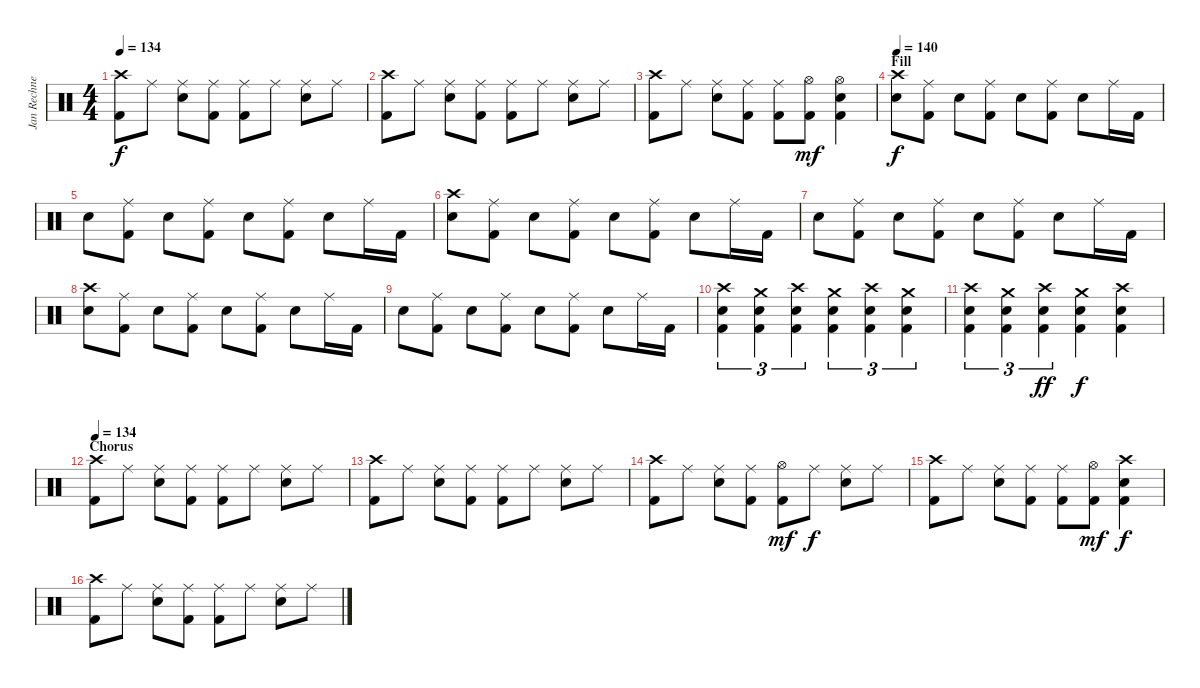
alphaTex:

\track ("Jan Rechnerger" "Jan Rechne") {instrument percussion}
\staff {score}
\articulation defaults
\ts (4 4)
\tempo 134
\clef neutral
\ks c
("Crash high (hit)" "Kick (hit) 2").8{dy f} "Ride (middle)".8 ("Ride (middle)" "Snare (hit) 2").8 ("Ride (middle)" "Kick (hit) 2").8 ("Ride (middle)" "Kick (hit) 2").8 "Ride (middle)".8 ("Ride (middle)" "Snare (hit) 2").8 "Ride (middle)".8 |
("Crash high (hit)" "Kick (hit) 2").8 "Ride (middle)".8 ("Ride (middle)" "Snare (hit) 2").8 ("Ride (middle)" "Kick (hit) 2").8 ("Ride (middle)" "Kick (hit) 2").8 "Ride (middle)".8 ("Ride (middle)" "Snare (hit) 2").8 "Ride (middle)".8 |
("Crash high (hit)" "Kick (hit) 2").8 "Ride (middle)".8 ("Ride (middle)" "Snare (hit) 2").8 ("Ride (middle)" "Kick (hit) 2").8 ("Ride (middle)" "Kick (hit) 2").8 ("Hi-Hat (open)" "Kick (hit) 2").8{dy mf} ("Hi-Hat (open)" "Snare (hit) 2" "Kick (hit) 2").4 |
\section ("" "Fill")
\tempo 140
("Crash high (hit)" "Snare (hit) 2").8{dy f} ("Ride (middle)" "Kick (hit) 2").8 "Snare (hit) 2".8 ("Ride (middle)" "Kick (hit) 2").8 "Snare (hit) 2".8 ("Ride (middle)" "Kick (hit) 2").8 "Snare (hit) 2".8 "Ride (middle)".16 "Kick (hit) 2".16 |
"Snare (hit) 2".8 ("Ride (middle)" "Kick (hit) 2").8 "Snare (hit) 2".8 ("Ride (middle)" "Kick (hit) 2").8 "Snare (hit) 2".8 ("Ride (middle)" "Kick (hit) 2").8 "Snare (hit) 2".8 "Ride (middle)".16 "Kick (hit) 2".16 |
("Crash high (hit)" "Snare (hit) 2").8 ("Ride (middle)" "Kick (hit) 2").8 "Snare (hit) 2".8 ("Ride (middle)" "Kick (hit) 2").8 "Snare (hit) 2".8 ("Ride (middle)" "Kick (hit) 2").8 "Snare (hit) 2".8 "Ride (middle)".16 "Kick (hit) 2".16 |
"Snare (hit) 2".8 ("Ride (middle)" "Kick (hit) 2").8 "Snare (hit) 2".8 ("Ride (middle)" "Kick (hit) 2").8 "Snare (hit) 2".8 ("Ride (middle)" "Kick (hit) 2").8 "Snare (hit) 2".8 "Ride (middle)".16 "Kick (hit) 2".16 |
("Crash high (hit)" "Snare (hit) 2").8 ("Ride (middle)" "Kick (hit) 2").8 "Snare (hit) 2".8 ("Ride (middle)" "Kick (hit) 2").8 "Snare (hit) 2".8 ("Ride (middle)" "Kick (hit) 2").8 "Snare (hit) 2".8 "Ride (middle)".16 "Kick (hit) 2".16 |
"Snare (hit) 2".8 ("Ride (middle)" "Kick (hit) 2").8 "Snare (hit) 2".8 ("Ride (middle)" "Kick (hit) 2").8 "Snare (hit) 2".8 ("Ride (middle)" "Kick (hit) 2").8 "Snare (hit) 2".8 "Ride (middle)".16 "Kick (hit) 2".16 |
("Crash high (hit)" "Snare (hit) 2" "Kick (hit) 2").4{tu (3 2)} ("Crash medium (hit)" "Snare (hit) 2" "Kick (hit) 2").4{tu (3 2)} ("Crash high (hit)" "Snare (hit) 2" "Kick (hit) 2").4{tu (3 2)} ("Crash medium (hit)" "Snare (hit) 2" "Kick (hit) 2").4{tu (3 2)} ("Crash high (hit)" "Snare (hit) 2" "Kick (hit) 2").4{tu (3 2)} ("Crash medium (hit)" "Snare (hit) 2" "Kick (hit) 2").4{tu (3 2)} |
("Crash high (hit)" "Snare (hit) 2" "Kick (hit) 2").4{tu (3 2)} ("Crash medium (hit)" "Snare (hit) 2" "Kick (hit) 2").4{tu (3 2)} ("Crash high (hit)" "Snare (hit) 2" "Kick (hit) 2").4{tu (3 2) dy ff} ("Crash medium (hit)" "Snare (hit) 2" "Kick (hit) 2").4{dy f} ("Crash high (hit)" "Snare (hit) 2" "Kick (hit) 2").4 |
\section ("" "Chorus")
\tempo 134
("Crash high (hit)" "Kick (hit) 2").8 "Ride (middle)".8 ("Ride (middle)" "Snare (hit) 2").8 ("Ride (middle)" "Kick (hit) 2").8 ("Ride (middle)" "Kick (hit) 2").8 "Ride (middle)".8 ("Ride (middle)" "Snare (hit) 2").8 "Ride (middle)".8 |
("Crash high (hit)" "Kick (hit) 2").8 "Ride (middle)".8 ("Ride (middle)" "Snare (hit) 2").8 ("Ride (middle)" "Kick (hit) 2").8 ("Ride (middle)" "Kick (hit) 2").8 "Ride (middle)".8 ("Ride (middle)" "Snare (hit) 2").8 "Ride (middle)".8 |
("Crash high (hit)" "Kick (hit) 2").8 "Ride (middle)".8 ("Ride (middle)" "Snare (hit) 2").8 ("Ride (middle)" "Kick (hit) 2").8 ("Hi-Hat (open)" "Kick (hit) 2").8{dy mf} "Ride (middle)".8{dy f} ("Ride (middle)" "Snare (hit) 2").8 "Ride (middle)".8 |
("Crash high (hit)" "Kick (hit) 2").8 "Ride (middle)".8 ("Ride (middle)" "Snare (hit) 2").8 ("Ride (middle)" "Kick (hit) 2").8 ("Ride (middle)" "Kick (hit) 2").8 ("Hi-Hat (open)" "Kick (hit) 2").8{dy mf} ("Crash high (hit)" "Snare (hit) 2" "Kick (hit) 2").4{dy f} |
("Crash high (hit)" "Kick (hit) 2").8 "Ride (middle)".8 ("Ride (middle)" "Snare (hit) 2").8 ("Ride (middle)" "Kick (hit) 2").8 ("Ride (middle)" "Kick (hit) 2").8 "Ride (middle)".8 ("Ride (middle)" "Snare (hit) 2").8 "Ride (middle)".8
